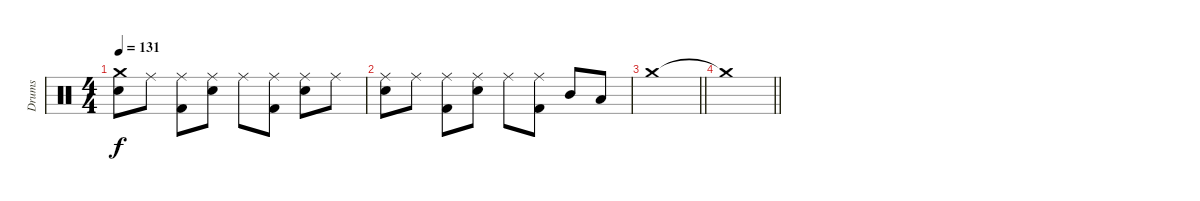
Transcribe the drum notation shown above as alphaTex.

\track ("Drums" "Drums") {instrument percussion}
\staff {score}
\articulation defaults
\ts (4 4)
\tempo 131
\clef neutral
\ks c
("Crash medium (hit)" "Electric Snare (hit)").8{dy f} "Ride (middle)".8 ("Ride (middle)" "Kick (hit) 2").8 ("Ride (middle)" "Electric Snare (hit)").8 "Ride (middle)".8 ("Ride (middle)" "Kick (hit) 2").8 ("Ride (middle)" "Electric Snare (hit)").8 "Ride (middle)".8 |
("Ride (middle)" "Electric Snare (hit)").8 "Ride (middle)".8 ("Ride (middle)" "Kick (hit) 2").8 ("Ride (middle)" "Electric Snare (hit)").8 "Ride (middle)".8 ("Ride (middle)" "Kick (hit) 2").8 "Mid Tom (hit)".8 "Low Tom (hit)".8 |
\barLineRight lightlight "Crash medium (hit)".1
|
\barLineRight lightlight "Crash medium (hit)"{t}.1
